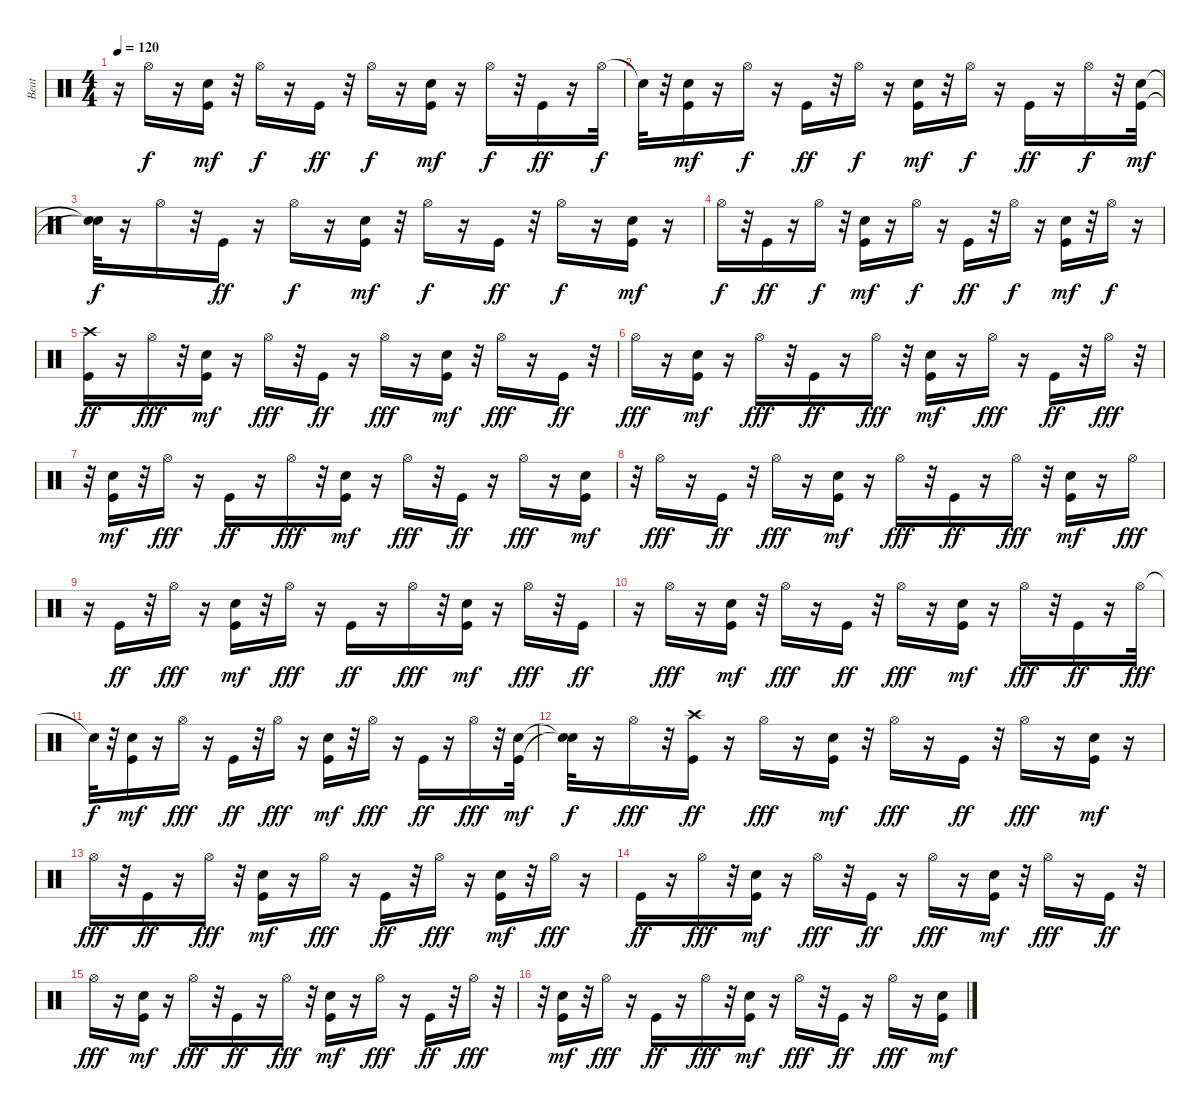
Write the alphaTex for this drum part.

\track ("Beat" "Beat") {instrument percussion}
\staff {score}
\articulation defaults
\ts (4 4)
\tempo 120
\clef neutral
\ks c
r.16{dy ff} "Hi-Hat (open)".16{dy f} r.16 ("Kick (hit)" "Hand Clap (hit)").16{dy mf} r.32 "Hi-Hat (open)".16{dy f} r.16 "Kick (hit)".16{dy ff} r.32 "Hi-Hat (open)".16{dy f} r.16 ("Kick (hit)" "Hand Clap (hit)").16{dy mf} r.16 "Hi-Hat (open)".16{dy f} r.32 "Kick (hit)".16{dy ff} r.16 "Hi-Hat (open)".32{dy f} |
"Snare (hit)"{t}.32 r.32 ("Kick (hit)" "Hand Clap (hit)").16{dy mf} r.16 "Hi-Hat (open)".16{dy f} r.16 "Kick (hit)".16{dy ff} r.32 "Hi-Hat (open)".16{dy f} r.16 ("Kick (hit)" "Hand Clap (hit)").16{dy mf} r.32 "Hi-Hat (open)".16{dy f} r.16 "Kick (hit)".16{dy ff} r.16 "Hi-Hat (open)".16{dy f} r.32 ("Kick (hit)" "Hand Clap (hit)").32{dy mf} |
("Snare (hit)"{t} "Snare (hit)"{t}).32{dy f} r.16 "Hi-Hat (open)".16 r.32 "Kick (hit)".16{dy ff} r.16 "Hi-Hat (open)".16{dy f} r.16 ("Kick (hit)" "Hand Clap (hit)").16{dy mf} r.32 "Hi-Hat (open)".16{dy f} r.16 "Kick (hit)".16{dy ff} r.32 "Hi-Hat (open)".16{dy f} r.16 ("Kick (hit)" "Hand Clap (hit)").16{dy mf} r.16 |
"Hi-Hat (open)".16{dy f} r.32 "Kick (hit)".16{dy ff} r.16 "Hi-Hat (open)".16{dy f} r.32 ("Kick (hit)" "Hand Clap (hit)").16{dy mf} r.16 "Hi-Hat (open)".16{dy f} r.16 "Kick (hit)".16{dy ff} r.32 "Hi-Hat (open)".16{dy f} r.16 ("Kick (hit)" "Hand Clap (hit)").16{dy mf} r.32 "Hi-Hat (open)".16{dy f} r.16 |
("Kick (hit)" "Crash high (hit)").16{dy ff} r.16 "Hi-Hat (open)".16{dy fff} r.32 ("Kick (hit)" "Hand Clap (hit)").16{dy mf} r.16 "Hi-Hat (open)".16{dy fff} r.32 "Kick (hit)".16{dy ff} r.16 "Hi-Hat (open)".16{dy fff} r.16 ("Kick (hit)" "Hand Clap (hit)").16{dy mf} r.32 "Hi-Hat (open)".16{dy fff} r.16 "Kick (hit)".16{dy ff} r.32 |
"Hi-Hat (open)".16{dy fff} r.16 ("Kick (hit)" "Hand Clap (hit)").16{dy mf} r.16 "Hi-Hat (open)".16{dy fff} r.32 "Kick (hit)".16{dy ff} r.16 "Hi-Hat (open)".16{dy fff} r.32 ("Kick (hit)" "Hand Clap (hit)").16{dy mf} r.16 "Hi-Hat (open)".16{dy fff} r.16 "Kick (hit)".16{dy ff} r.32 "Hi-Hat (open)".16{dy fff} r.32 |
r.32 ("Kick (hit)" "Hand Clap (hit)").16{dy mf} r.32 "Hi-Hat (open)".16{dy fff} r.16 "Kick (hit)".16{dy ff} r.16 "Hi-Hat (open)".16{dy fff} r.32 ("Kick (hit)" "Hand Clap (hit)").16{dy mf} r.16 "Hi-Hat (open)".16{dy fff} r.32 "Kick (hit)".16{dy ff} r.16 "Hi-Hat (open)".16{dy fff} r.16 ("Kick (hit)" "Hand Clap (hit)").16{dy mf} |
r.32 "Hi-Hat (open)".16{dy fff} r.16 "Kick (hit)".16{dy ff} r.32 "Hi-Hat (open)".16{dy fff} r.16 ("Kick (hit)" "Hand Clap (hit)").16{dy mf} r.16 "Hi-Hat (open)".16{dy fff} r.32 "Kick (hit)".16{dy ff} r.16 "Hi-Hat (open)".16{dy fff} r.32 ("Kick (hit)" "Hand Clap (hit)").16{dy mf} r.16 "Hi-Hat (open)".16{dy fff} |
r.16 "Kick (hit)".16{dy ff} r.32 "Hi-Hat (open)".16{dy fff} r.16 ("Kick (hit)" "Hand Clap (hit)").16{dy mf} r.32 "Hi-Hat (open)".16{dy fff} r.16 "Kick (hit)".16{dy ff} r.16 "Hi-Hat (open)".16{dy fff} r.32 ("Kick (hit)" "Hand Clap (hit)").16{dy mf} r.16 "Hi-Hat (open)".16{dy fff} r.32 "Kick (hit)".16{dy ff} |
r.16 "Hi-Hat (open)".16{dy fff} r.16 ("Kick (hit)" "Hand Clap (hit)").16{dy mf} r.32 "Hi-Hat (open)".16{dy fff} r.16 "Kick (hit)".16{dy ff} r.32 "Hi-Hat (open)".16{dy fff} r.16 ("Kick (hit)" "Hand Clap (hit)").16{dy mf} r.16 "Hi-Hat (open)".16{dy fff} r.32 "Kick (hit)".16{dy ff} r.16 "Hi-Hat (open)".32{dy fff} |
"Snare (hit)"{t}.32{dy f} r.32 ("Kick (hit)" "Hand Clap (hit)").16{dy mf} r.16 "Hi-Hat (open)".16{dy fff} r.16 "Kick (hit)".16{dy ff} r.32 "Hi-Hat (open)".16{dy fff} r.16 ("Kick (hit)" "Hand Clap (hit)").16{dy mf} r.32 "Hi-Hat (open)".16{dy fff} r.16 "Kick (hit)".16{dy ff} r.16 "Hi-Hat (open)".16{dy fff} r.32 ("Kick (hit)" "Hand Clap (hit)").32{dy mf} |
("Snare (hit)"{t} "Snare (hit)"{t}).32{dy f} r.16 "Hi-Hat (open)".16{dy fff} r.32 ("Kick (hit)" "Crash high (hit)").16{dy ff} r.16 "Hi-Hat (open)".16{dy fff} r.16 ("Kick (hit)" "Hand Clap (hit)").16{dy mf} r.32 "Hi-Hat (open)".16{dy fff} r.16 "Kick (hit)".16{dy ff} r.32 "Hi-Hat (open)".16{dy fff} r.16 ("Kick (hit)" "Hand Clap (hit)").16{dy mf} r.16 |
"Hi-Hat (open)".16{dy fff} r.32 "Kick (hit)".16{dy ff} r.16 "Hi-Hat (open)".16{dy fff} r.32 ("Kick (hit)" "Hand Clap (hit)").16{dy mf} r.16 "Hi-Hat (open)".16{dy fff} r.16 "Kick (hit)".16{dy ff} r.32 "Hi-Hat (open)".16{dy fff} r.16 ("Kick (hit)" "Hand Clap (hit)").16{dy mf} r.32 "Hi-Hat (open)".16{dy fff} r.16 |
"Kick (hit)".16{dy ff} r.16 "Hi-Hat (open)".16{dy fff} r.32 ("Kick (hit)" "Hand Clap (hit)").16{dy mf} r.16 "Hi-Hat (open)".16{dy fff} r.32 "Kick (hit)".16{dy ff} r.16 "Hi-Hat (open)".16{dy fff} r.16 ("Kick (hit)" "Hand Clap (hit)").16{dy mf} r.32 "Hi-Hat (open)".16{dy fff} r.16 "Kick (hit)".16{dy ff} r.32 |
"Hi-Hat (open)".16{dy fff} r.16 ("Kick (hit)" "Hand Clap (hit)").16{dy mf} r.16 "Hi-Hat (open)".16{dy fff} r.32 "Kick (hit)".16{dy ff} r.16 "Hi-Hat (open)".16{dy fff} r.32 ("Kick (hit)" "Hand Clap (hit)").16{dy mf} r.16 "Hi-Hat (open)".16{dy fff} r.16 "Kick (hit)".16{dy ff} r.32 "Hi-Hat (open)".16{dy fff} r.32 |
r.32 ("Kick (hit)" "Hand Clap (hit)").16{dy mf} r.32 "Hi-Hat (open)".16{dy fff} r.16 "Kick (hit)".16{dy ff} r.16 "Hi-Hat (open)".16{dy fff} r.32 ("Kick (hit)" "Hand Clap (hit)").16{dy mf} r.16 "Hi-Hat (open)".16{dy fff} r.32 "Kick (hit)".16{dy ff} r.16 "Hi-Hat (open)".16{dy fff} r.16 ("Kick (hit)" "Hand Clap (hit)").16{dy mf}
